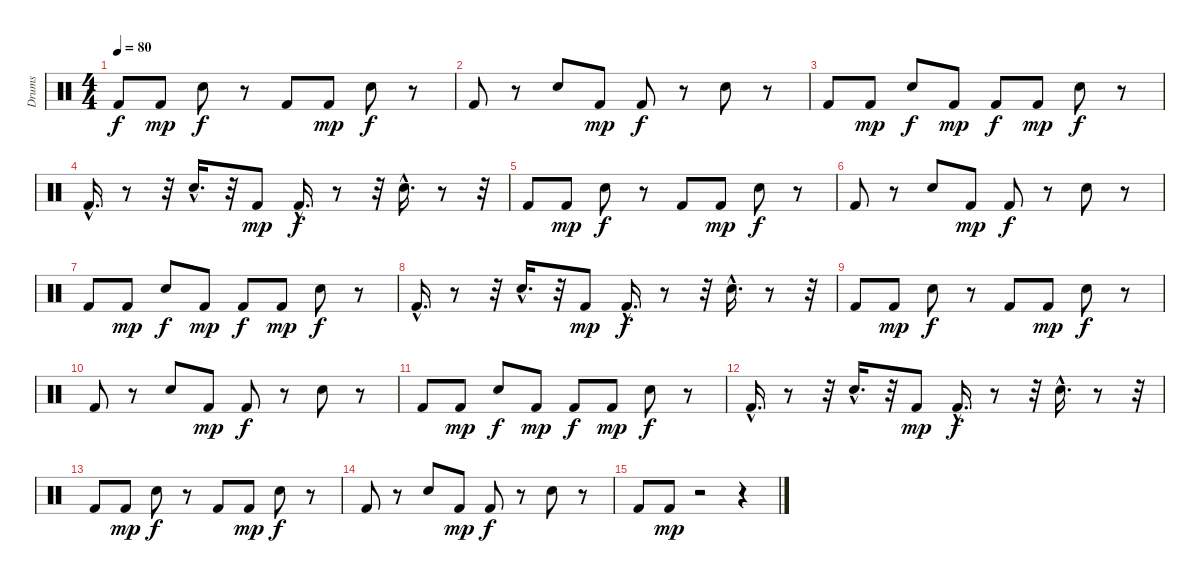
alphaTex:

\track ("Drums" "Drums") {instrument percussion}
\staff {score}
\articulation defaults
\ts (4 4)
\tempo 80
\clef neutral
\ks c "Kick (hit) 2".8{dy f} "Kick (hit) 2".8{dy mp} "Electric Snare (hit)".8{dy f}
r.8 "Kick (hit) 2".8 "Kick (hit) 2".8{dy mp} "Electric Snare (hit)".8{dy f} r.8 |
"Kick (hit) 2".8 r.8 "Electric Snare (hit)".8 "Kick (hit) 2".8{dy mp} "Kick (hit) 2".8{dy f} r.8 "Electric Snare (hit)".8 r.8 |
"Kick (hit) 2".8 "Kick (hit) 2".8{dy mp} "Electric Snare (hit)".8{dy f} "Kick (hit) 2".8{dy mp} "Kick (hit) 2".8{dy f} "Kick (hit) 2".8{dy mp} "Electric Snare (hit)".8{dy f} r.8 |
"Kick (hit) 2"{hac}.16{d} r.8 r.32 "Electric Snare (hit)"{hac}.16{d} r.32 "Kick (hit) 2".8{dy mp} "Kick (hit) 2"{hac}.16{d dy f} r.8 r.32 "Electric Snare (hit)"{hac}.16{d} r.8 r.32 |
"Kick (hit) 2".8 "Kick (hit) 2".8{dy mp} "Electric Snare (hit)".8{dy f} r.8 "Kick (hit) 2".8 "Kick (hit) 2".8{dy mp} "Electric Snare (hit)".8{dy f} r.8 |
"Kick (hit) 2".8 r.8 "Electric Snare (hit)".8 "Kick (hit) 2".8{dy mp} "Kick (hit) 2".8{dy f} r.8 "Electric Snare (hit)".8 r.8 |
"Kick (hit) 2".8 "Kick (hit) 2".8{dy mp} "Electric Snare (hit)".8{dy f} "Kick (hit) 2".8{dy mp} "Kick (hit) 2".8{dy f} "Kick (hit) 2".8{dy mp} "Electric Snare (hit)".8{dy f} r.8 |
"Kick (hit) 2"{hac}.16{d} r.8 r.32 "Electric Snare (hit)"{hac}.16{d} r.32 "Kick (hit) 2".8{dy mp} "Kick (hit) 2"{hac}.16{d dy f} r.8 r.32 "Electric Snare (hit)"{hac}.16{d} r.8 r.32 |
"Kick (hit) 2".8 "Kick (hit) 2".8{dy mp} "Electric Snare (hit)".8{dy f} r.8 "Kick (hit) 2".8 "Kick (hit) 2".8{dy mp} "Electric Snare (hit)".8{dy f} r.8 |
"Kick (hit) 2".8 r.8 "Electric Snare (hit)".8 "Kick (hit) 2".8{dy mp} "Kick (hit) 2".8{dy f} r.8 "Electric Snare (hit)".8 r.8 |
"Kick (hit) 2".8 "Kick (hit) 2".8{dy mp} "Electric Snare (hit)".8{dy f} "Kick (hit) 2".8{dy mp} "Kick (hit) 2".8{dy f} "Kick (hit) 2".8{dy mp} "Electric Snare (hit)".8{dy f} r.8 |
"Kick (hit) 2"{hac}.16{d} r.8 r.32 "Electric Snare (hit)"{hac}.16{d} r.32 "Kick (hit) 2".8{dy mp} "Kick (hit) 2"{hac}.16{d dy f} r.8 r.32 "Electric Snare (hit)"{hac}.16{d} r.8 r.32 |
"Kick (hit) 2".8 "Kick (hit) 2".8{dy mp} "Electric Snare (hit)".8{dy f} r.8 "Kick (hit) 2".8{volume 11} "Kick (hit) 2".8{dy mp volume 11} "Electric Snare (hit)".8{dy f volume 10} r.8 |
"Kick (hit) 2".8{volume 8} r.8 "Electric Snare (hit)".8{volume 7} "Kick (hit) 2".8{dy mp volume 6} "Kick (hit) 2".8{dy f volume 6} r.8 "Electric Snare (hit)".8{volume 4} r.8 |
"Kick (hit) 2".8{volume 3} "Kick (hit) 2".8{dy mp volume 2} r.2 r.4
